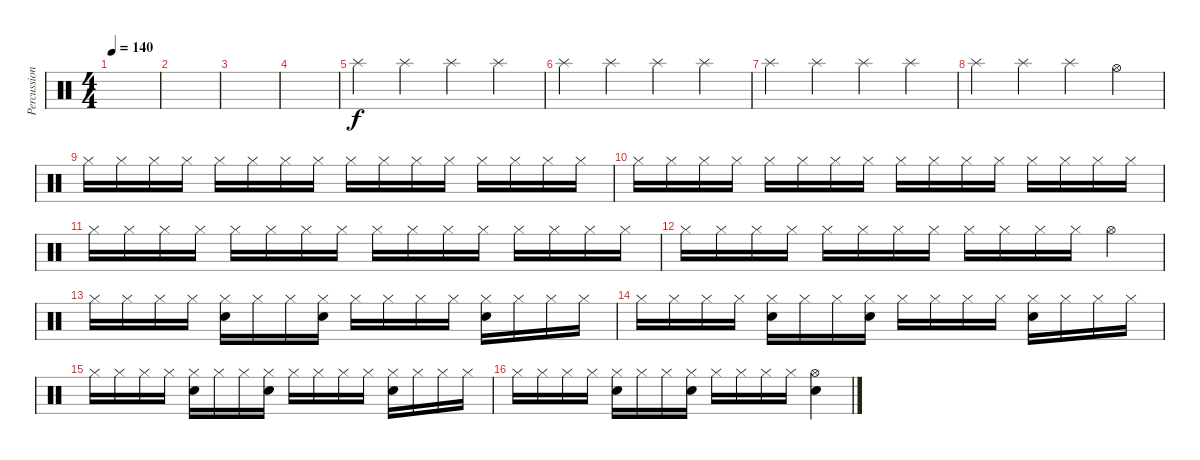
\track ("Percussion" "Percussion") {instrument percussion}
\staff {score}
\articulation defaults
\ts (4 4)
\tempo 140
\clef neutral
\ks c
|
|
|
|
"Splash (hit)".4 "Splash (hit)".4 "Splash (hit)".4 "Splash (hit)".4 |
"Splash (hit)".4 "Splash (hit)".4 "Splash (hit)".4 "Splash (hit)".4 |
"Splash (hit)".4 "Splash (hit)".4 "Splash (hit)".4 "Splash (hit)".4 |
"Splash (hit)".4 "Splash (hit)".4 "Splash (hit)".4 "Hi-Hat (open)".4 |
"Hi-Hat (closed)".16 "Hi-Hat (closed)".16 "Hi-Hat (closed)".16 "Hi-Hat (closed)".16 "Hi-Hat (closed)".16 "Hi-Hat (closed)".16 "Hi-Hat (closed)".16 "Hi-Hat (closed)".16 "Hi-Hat (closed)".16 "Hi-Hat (closed)".16 "Hi-Hat (closed)".16 "Hi-Hat (closed)".16 "Hi-Hat (closed)".16 "Hi-Hat (closed)".16 "Hi-Hat (closed)".16 "Hi-Hat (closed)".16 |
"Hi-Hat (closed)".16 "Hi-Hat (closed)".16 "Hi-Hat (closed)".16 "Hi-Hat (closed)".16 "Hi-Hat (closed)".16 "Hi-Hat (closed)".16 "Hi-Hat (closed)".16 "Hi-Hat (closed)".16 "Hi-Hat (closed)".16 "Hi-Hat (closed)".16 "Hi-Hat (closed)".16 "Hi-Hat (closed)".16 "Hi-Hat (closed)".16 "Hi-Hat (closed)".16 "Hi-Hat (closed)".16 "Hi-Hat (closed)".16 |
"Hi-Hat (closed)".16 "Hi-Hat (closed)".16 "Hi-Hat (closed)".16 "Hi-Hat (closed)".16 "Hi-Hat (closed)".16 "Hi-Hat (closed)".16 "Hi-Hat (closed)".16 "Hi-Hat (closed)".16 "Hi-Hat (closed)".16 "Hi-Hat (closed)".16 "Hi-Hat (closed)".16 "Hi-Hat (closed)".16 "Hi-Hat (closed)".16 "Hi-Hat (closed)".16 "Hi-Hat (closed)".16 "Hi-Hat (closed)".16 |
"Hi-Hat (closed)".16 "Hi-Hat (closed)".16 "Hi-Hat (closed)".16 "Hi-Hat (closed)".16 "Hi-Hat (closed)".16 "Hi-Hat (closed)".16 "Hi-Hat (closed)".16 "Hi-Hat (closed)".16 "Hi-Hat (closed)".16 "Hi-Hat (closed)".16 "Hi-Hat (closed)".16 "Hi-Hat (closed)".16 "Hi-Hat (open)".4 |
"Hi-Hat (closed)".16 "Hi-Hat (closed)".16 "Hi-Hat (closed)".16 "Hi-Hat (closed)".16 ("Hi-Hat (closed)" "Electric Snare (hit)").16 "Hi-Hat (closed)".16 "Hi-Hat (closed)".16 ("Hi-Hat (closed)" "Electric Snare (hit)").16 "Hi-Hat (closed)".16 "Hi-Hat (closed)".16 "Hi-Hat (closed)".16 "Hi-Hat (closed)".16 ("Hi-Hat (closed)" "Electric Snare (hit)").16 "Hi-Hat (closed)".16 "Hi-Hat (closed)".16 "Hi-Hat (closed)".16 |
"Hi-Hat (closed)".16 "Hi-Hat (closed)".16 "Hi-Hat (closed)".16 "Hi-Hat (closed)".16 ("Hi-Hat (closed)" "Electric Snare (hit)").16 "Hi-Hat (closed)".16 "Hi-Hat (closed)".16 ("Hi-Hat (closed)" "Electric Snare (hit)").16 "Hi-Hat (closed)".16 "Hi-Hat (closed)".16 "Hi-Hat (closed)".16 "Hi-Hat (closed)".16 ("Hi-Hat (closed)" "Electric Snare (hit)").16 "Hi-Hat (closed)".16 "Hi-Hat (closed)".16 "Hi-Hat (closed)".16 |
"Hi-Hat (closed)".16 "Hi-Hat (closed)".16 "Hi-Hat (closed)".16 "Hi-Hat (closed)".16 ("Hi-Hat (closed)" "Electric Snare (hit)").16 "Hi-Hat (closed)".16 "Hi-Hat (closed)".16 ("Hi-Hat (closed)" "Electric Snare (hit)").16 "Hi-Hat (closed)".16 "Hi-Hat (closed)".16 "Hi-Hat (closed)".16 "Hi-Hat (closed)".16 ("Hi-Hat (closed)" "Electric Snare (hit)").16 "Hi-Hat (closed)".16 "Hi-Hat (closed)".16 "Hi-Hat (closed)".16 |
"Hi-Hat (closed)".16 "Hi-Hat (closed)".16 "Hi-Hat (closed)".16 "Hi-Hat (closed)".16 ("Hi-Hat (closed)" "Electric Snare (hit)").16 "Hi-Hat (closed)".16 "Hi-Hat (closed)".16 ("Hi-Hat (closed)" "Electric Snare (hit)").16 "Hi-Hat (closed)".16 "Hi-Hat (closed)".16 "Hi-Hat (closed)".16 "Hi-Hat (closed)".16 ("Hi-Hat (open)" "Electric Snare (hit)").4
